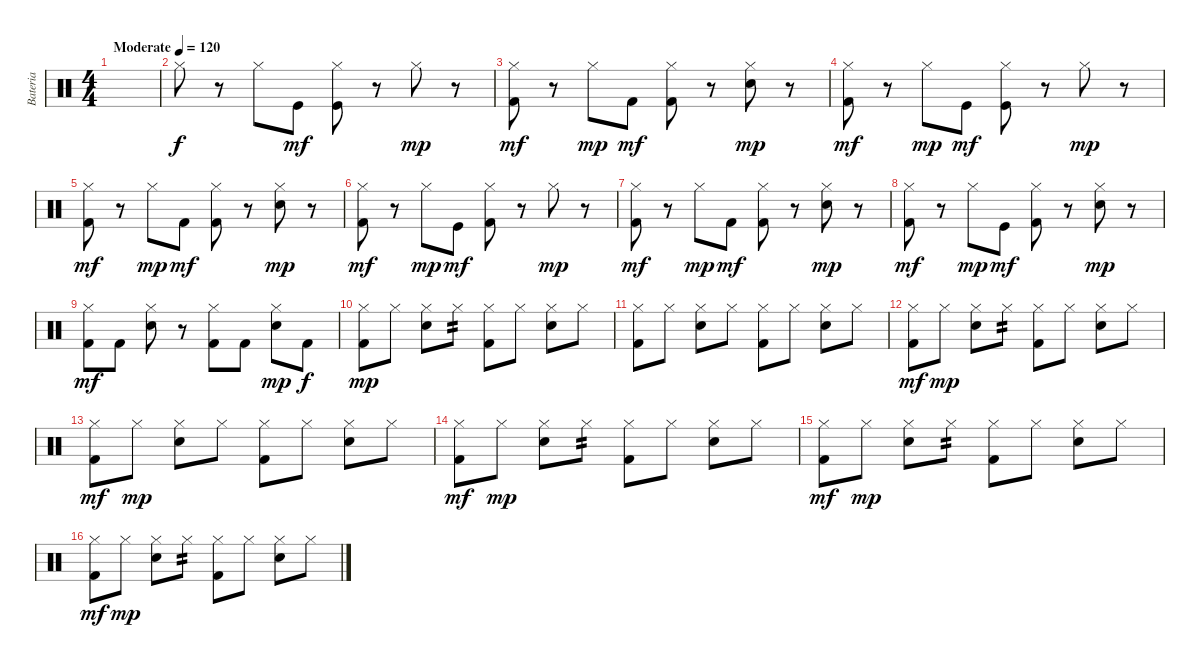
\track ("Bateria" "Bateria") {instrument percussion}
\staff {score}
\articulation defaults
\ts (4 4)
\tempo (120 "Moderate")
\clef neutral
\ks c
|
"Hi-Hat (closed)".8 r.8 "Hi-Hat (closed)".8 "Kick (hit)".8{dy mf} ("Hi-Hat (closed)" "Kick (hit)").8 r.8 "Hi-Hat (closed)".8{dy mp} r.8 |
("Hi-Hat (closed)" "Kick (hit) 2").8{dy mf} r.8 "Hi-Hat (closed)".8{dy mp} "Kick (hit) 2".8{dy mf} ("Hi-Hat (closed)" "Kick (hit) 2").8 r.8 ("Hi-Hat (closed)" "Electric Snare (hit)").8{dy mp} r.8 |
("Hi-Hat (closed)" "Kick (hit) 2").8{dy mf} r.8 "Hi-Hat (closed)".8{dy mp} "Kick (hit)".8{dy mf} ("Hi-Hat (closed)" "Kick (hit)").8 r.8 "Hi-Hat (closed)".8{dy mp} r.8 |
("Hi-Hat (closed)" "Kick (hit) 2").8{dy mf} r.8 "Hi-Hat (closed)".8{dy mp} "Kick (hit) 2".8{dy mf} ("Hi-Hat (closed)" "Kick (hit) 2").8 r.8 ("Hi-Hat (closed)" "Electric Snare (hit)").8{dy mp} r.8 |
("Hi-Hat (closed)" "Kick (hit) 2").8{dy mf} r.8 "Hi-Hat (closed)".8{dy mp} "Kick (hit)".8{dy mf} ("Hi-Hat (closed)" "Kick (hit) 2").8 r.8 "Hi-Hat (closed)".8{dy mp} r.8 |
("Hi-Hat (closed)" "Kick (hit) 2").8{dy mf} r.8 "Hi-Hat (closed)".8{dy mp} "Kick (hit) 2".8{dy mf} ("Hi-Hat (closed)" "Kick (hit) 2").8 r.8 ("Hi-Hat (closed)" "Electric Snare (hit)").8{dy mp} r.8 |
("Hi-Hat (closed)" "Kick (hit) 2").8{dy mf} r.8 "Hi-Hat (closed)".8{dy mp} "Kick (hit)".8{dy mf} ("Hi-Hat (closed)" "Kick (hit) 2").8 r.8 ("Hi-Hat (closed)" "Electric Snare (hit)").8{dy mp} r.8 |
("Hi-Hat (closed)" "Kick (hit) 2").8{dy mf} "Kick (hit) 2".8 ("Hi-Hat (closed)" "Electric Snare (hit)").8 r.8 ("Hi-Hat (closed)" "Kick (hit) 2").8 "Kick (hit) 2".8 ("Hi-Hat (closed)" "Electric Snare (hit)").8{dy mp} "Kick (hit) 2".8{dy f} |
("Hi-Hat (closed)" "Kick (hit) 2").8{dy mp} "Hi-Hat (closed)".8 ("Hi-Hat (closed)" "Electric Snare (hit)").8 "Hi-Hat (closed)".8{tp 2} ("Hi-Hat (closed)" "Kick (hit) 2").8 "Hi-Hat (closed)".8 ("Hi-Hat (closed)" "Electric Snare (hit)").8 "Hi-Hat (closed)".8 |
("Hi-Hat (closed)" "Kick (hit) 2").8 "Hi-Hat (closed)".8 ("Hi-Hat (closed)" "Electric Snare (hit)").8 "Hi-Hat (closed)".8 ("Hi-Hat (closed)" "Kick (hit) 2").8 "Hi-Hat (closed)".8 ("Hi-Hat (closed)" "Electric Snare (hit)").8 "Hi-Hat (closed)".8 |
("Hi-Hat (closed)" "Kick (hit) 2").8{dy mf} "Hi-Hat (closed)".8{dy mp} ("Hi-Hat (closed)" "Electric Snare (hit)").8 "Hi-Hat (closed)".8{tp 2} ("Hi-Hat (closed)" "Kick (hit) 2").8 "Hi-Hat (closed)".8 ("Hi-Hat (closed)" "Electric Snare (hit)").8 "Hi-Hat (closed)".8 |
("Hi-Hat (closed)" "Kick (hit) 2").8{dy mf} "Hi-Hat (closed)".8{dy mp} ("Hi-Hat (closed)" "Electric Snare (hit)").8 "Hi-Hat (closed)".8 ("Hi-Hat (closed)" "Kick (hit) 2").8 "Hi-Hat (closed)".8 ("Hi-Hat (closed)" "Electric Snare (hit)").8 "Hi-Hat (closed)".8 |
("Hi-Hat (closed)" "Kick (hit) 2").8{dy mf} "Hi-Hat (closed)".8{dy mp} ("Hi-Hat (closed)" "Electric Snare (hit)").8 "Hi-Hat (closed)".8{tp 2} ("Hi-Hat (closed)" "Kick (hit) 2").8 "Hi-Hat (closed)".8 ("Hi-Hat (closed)" "Electric Snare (hit)").8 "Hi-Hat (closed)".8 |
("Hi-Hat (closed)" "Kick (hit) 2").8{dy mf} "Hi-Hat (closed)".8{dy mp} ("Hi-Hat (closed)" "Electric Snare (hit)").8 "Hi-Hat (closed)".8{tp 2} ("Hi-Hat (closed)" "Kick (hit) 2").8 "Hi-Hat (closed)".8 ("Hi-Hat (closed)" "Electric Snare (hit)").8 "Hi-Hat (closed)".8 |
("Hi-Hat (closed)" "Kick (hit) 2").8{dy mf} "Hi-Hat (closed)".8{dy mp} ("Hi-Hat (closed)" "Electric Snare (hit)").8 "Hi-Hat (closed)".8{tp 2} ("Hi-Hat (closed)" "Kick (hit) 2").8 "Hi-Hat (closed)".8 ("Hi-Hat (closed)" "Electric Snare (hit)").8 "Hi-Hat (closed)".8
